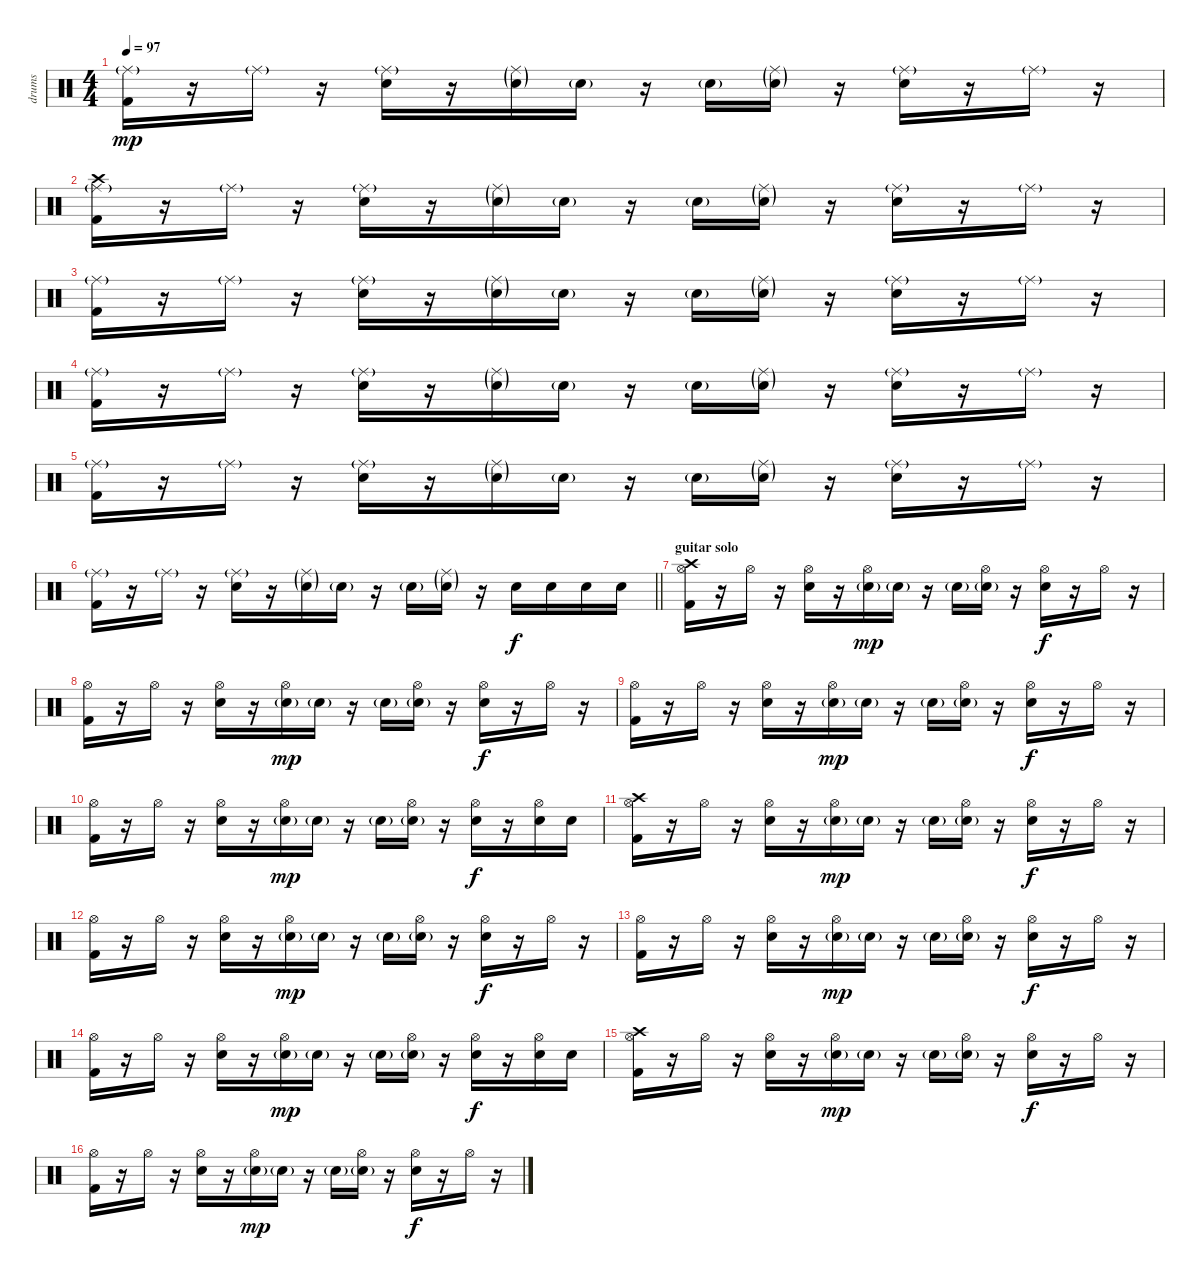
\track ("drums" "drums") {instrument percussion}
\staff {score}
\articulation defaults
\ts (4 4)
\tempo 97
\clef neutral
\ks c
("Kick (hit) 2" "Ride (middle)"{g}).16{dy mp} r.16 "Ride (middle)"{g}.16 r.16 ("Electric Snare (hit)" "Ride (middle)"{g}).16 r.16 ("Electric Snare (hit)"{g} "Ride (middle)"{g}).16 "Electric Snare (hit)"{g}.16 r.16 "Electric Snare (hit)"{g}.16 ("Electric Snare (hit)"{g} "Ride (middle)"{g}).16 r.16 ("Electric Snare (hit)" "Ride (middle)"{g}).16 r.16 "Ride (middle)"{g}.16 r.16 |
("Kick (hit) 2" "Ride (middle)"{g} "Crash high (hit)").16 r.16 "Ride (middle)"{g}.16 r.16 ("Electric Snare (hit)" "Ride (middle)"{g}).16 r.16 ("Electric Snare (hit)"{g} "Ride (middle)"{g}).16 "Electric Snare (hit)"{g}.16 r.16 "Electric Snare (hit)"{g}.16 ("Electric Snare (hit)"{g} "Ride (middle)"{g}).16 r.16 ("Electric Snare (hit)" "Ride (middle)"{g}).16 r.16 "Ride (middle)"{g}.16 r.16 |
("Kick (hit) 2" "Ride (middle)"{g}).16 r.16 "Ride (middle)"{g}.16 r.16 ("Electric Snare (hit)" "Ride (middle)"{g}).16 r.16 ("Electric Snare (hit)"{g} "Ride (middle)"{g}).16 "Electric Snare (hit)"{g}.16 r.16 "Electric Snare (hit)"{g}.16 ("Electric Snare (hit)"{g} "Ride (middle)"{g}).16 r.16 ("Electric Snare (hit)" "Ride (middle)"{g}).16 r.16 "Ride (middle)"{g}.16 r.16 |
("Kick (hit) 2" "Ride (middle)"{g}).16 r.16 "Ride (middle)"{g}.16 r.16 ("Electric Snare (hit)" "Ride (middle)"{g}).16 r.16 ("Electric Snare (hit)"{g} "Ride (middle)"{g}).16 "Electric Snare (hit)"{g}.16 r.16 "Electric Snare (hit)"{g}.16 ("Electric Snare (hit)"{g} "Ride (middle)"{g}).16 r.16 ("Electric Snare (hit)" "Ride (middle)"{g}).16 r.16 "Ride (middle)"{g}.16 r.16 |
("Kick (hit) 2" "Ride (middle)"{g}).16 r.16 "Ride (middle)"{g}.16 r.16 ("Electric Snare (hit)" "Ride (middle)"{g}).16 r.16 ("Electric Snare (hit)"{g} "Ride (middle)"{g}).16 "Electric Snare (hit)"{g}.16 r.16 "Electric Snare (hit)"{g}.16 ("Electric Snare (hit)"{g} "Ride (middle)"{g}).16 r.16 ("Electric Snare (hit)" "Ride (middle)"{g}).16 r.16 "Ride (middle)"{g}.16 r.16 |
\barLineRight lightlight
("Kick (hit) 2" "Ride (middle)"{g}).16 r.16 "Ride (middle)"{g}.16 r.16 ("Electric Snare (hit)" "Ride (middle)"{g}).16 r.16 ("Electric Snare (hit)"{g} "Ride (middle)"{g}).16 "Electric Snare (hit)"{g}.16 r.16 "Electric Snare (hit)"{g}.16 ("Electric Snare (hit)"{g} "Ride (middle)"{g}).16 r.16 "Electric Snare (hit)".16{dy f} "Electric Snare (hit)".16 "Electric Snare (hit)".16 "Electric Snare (hit)".16 |
\section ("" "guitar solo")
("Kick (hit) 2" "Hi-Hat (open)" "Crash high (hit)").16 r.16 "Hi-Hat (open)".16 r.16 ("Electric Snare (hit)" "Hi-Hat (open)").16 r.16 ("Electric Snare (hit)"{g} "Hi-Hat (open)").16{dy mp} "Electric Snare (hit)"{g}.16 r.16 "Electric Snare (hit)"{g}.16 ("Electric Snare (hit)"{g} "Hi-Hat (open)").16 r.16 ("Electric Snare (hit)" "Hi-Hat (open)").16{dy f} r.16 "Hi-Hat (open)".16 r.16 |
("Kick (hit) 2" "Hi-Hat (open)").16 r.16 "Hi-Hat (open)".16 r.16 ("Electric Snare (hit)" "Hi-Hat (open)").16 r.16 ("Electric Snare (hit)"{g} "Hi-Hat (open)").16{dy mp} "Electric Snare (hit)"{g}.16 r.16 "Electric Snare (hit)"{g}.16 ("Electric Snare (hit)"{g} "Hi-Hat (open)").16 r.16 ("Electric Snare (hit)" "Hi-Hat (open)").16{dy f} r.16 "Hi-Hat (open)".16 r.16 |
("Kick (hit) 2" "Hi-Hat (open)").16 r.16 "Hi-Hat (open)".16 r.16 ("Electric Snare (hit)" "Hi-Hat (open)").16 r.16 ("Electric Snare (hit)"{g} "Hi-Hat (open)").16{dy mp} "Electric Snare (hit)"{g}.16 r.16 "Electric Snare (hit)"{g}.16 ("Electric Snare (hit)"{g} "Hi-Hat (open)").16 r.16 ("Electric Snare (hit)" "Hi-Hat (open)").16{dy f} r.16 "Hi-Hat (open)".16 r.16 |
("Kick (hit) 2" "Hi-Hat (open)").16 r.16 "Hi-Hat (open)".16 r.16 ("Electric Snare (hit)" "Hi-Hat (open)").16 r.16 ("Electric Snare (hit)"{g} "Hi-Hat (open)").16{dy mp} "Electric Snare (hit)"{g}.16 r.16 "Electric Snare (hit)"{g}.16 ("Electric Snare (hit)"{g} "Hi-Hat (open)").16 r.16 ("Electric Snare (hit)" "Hi-Hat (open)").16{dy f} r.16 ("Electric Snare (hit)" "Hi-Hat (open)").16 "Electric Snare (hit)".16 |
("Kick (hit) 2" "Hi-Hat (open)" "Crash high (hit)").16 r.16 "Hi-Hat (open)".16 r.16 ("Electric Snare (hit)" "Hi-Hat (open)").16 r.16 ("Electric Snare (hit)"{g} "Hi-Hat (open)").16{dy mp} "Electric Snare (hit)"{g}.16 r.16 "Electric Snare (hit)"{g}.16 ("Electric Snare (hit)"{g} "Hi-Hat (open)").16 r.16 ("Electric Snare (hit)" "Hi-Hat (open)").16{dy f} r.16 "Hi-Hat (open)".16 r.16 |
("Kick (hit) 2" "Hi-Hat (open)").16 r.16 "Hi-Hat (open)".16 r.16 ("Electric Snare (hit)" "Hi-Hat (open)").16 r.16 ("Electric Snare (hit)"{g} "Hi-Hat (open)").16{dy mp} "Electric Snare (hit)"{g}.16 r.16 "Electric Snare (hit)"{g}.16 ("Electric Snare (hit)"{g} "Hi-Hat (open)").16 r.16 ("Electric Snare (hit)" "Hi-Hat (open)").16{dy f} r.16 "Hi-Hat (open)".16 r.16 |
("Kick (hit) 2" "Hi-Hat (open)").16 r.16 "Hi-Hat (open)".16 r.16 ("Electric Snare (hit)" "Hi-Hat (open)").16 r.16 ("Electric Snare (hit)"{g} "Hi-Hat (open)").16{dy mp} "Electric Snare (hit)"{g}.16 r.16 "Electric Snare (hit)"{g}.16 ("Electric Snare (hit)"{g} "Hi-Hat (open)").16 r.16 ("Electric Snare (hit)" "Hi-Hat (open)").16{dy f} r.16 "Hi-Hat (open)".16 r.16 |
("Kick (hit) 2" "Hi-Hat (open)").16 r.16 "Hi-Hat (open)".16 r.16 ("Electric Snare (hit)" "Hi-Hat (open)").16 r.16 ("Electric Snare (hit)"{g} "Hi-Hat (open)").16{dy mp} "Electric Snare (hit)"{g}.16 r.16 "Electric Snare (hit)"{g}.16 ("Electric Snare (hit)"{g} "Hi-Hat (open)").16 r.16 ("Electric Snare (hit)" "Hi-Hat (open)").16{dy f} r.16 ("Electric Snare (hit)" "Hi-Hat (open)").16 "Electric Snare (hit)".16 |
("Kick (hit) 2" "Hi-Hat (open)" "Crash high (hit)").16 r.16 "Hi-Hat (open)".16 r.16 ("Electric Snare (hit)" "Hi-Hat (open)").16 r.16 ("Electric Snare (hit)"{g} "Hi-Hat (open)").16{dy mp} "Electric Snare (hit)"{g}.16 r.16 "Electric Snare (hit)"{g}.16 ("Electric Snare (hit)"{g} "Hi-Hat (open)").16 r.16 ("Electric Snare (hit)" "Hi-Hat (open)").16{dy f} r.16 "Hi-Hat (open)".16 r.16 |
("Kick (hit) 2" "Hi-Hat (open)").16 r.16 "Hi-Hat (open)".16 r.16 ("Electric Snare (hit)" "Hi-Hat (open)").16 r.16 ("Electric Snare (hit)"{g} "Hi-Hat (open)").16{dy mp} "Electric Snare (hit)"{g}.16 r.16 "Electric Snare (hit)"{g}.16 ("Electric Snare (hit)"{g} "Hi-Hat (open)").16 r.16 ("Electric Snare (hit)" "Hi-Hat (open)").16{dy f} r.16 "Hi-Hat (open)".16 r.16
